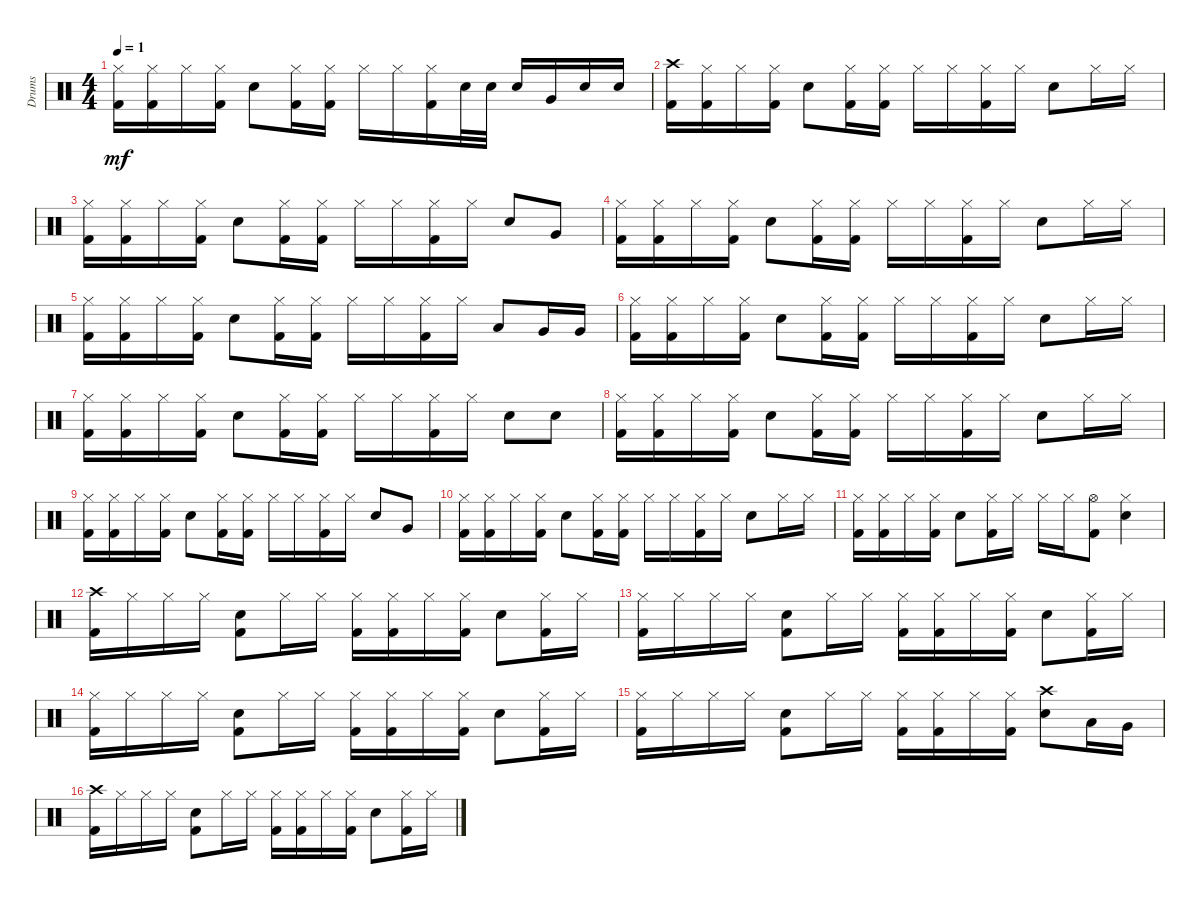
\track ("Drums" "Drums") {instrument percussion}
\staff {score}
\articulation defaults
\ts (4 4)
\tempo 1
\clef neutral
\ks c
("Hi-Hat (closed)" "Kick (hit) 2").16{dy mf} ("Hi-Hat (closed)" "Kick (hit) 2").16 "Hi-Hat (closed)".16 ("Hi-Hat (closed)" "Kick (hit) 2").16 "Snare (hit) 2".8 ("Hi-Hat (closed)" "Kick (hit) 2").16 ("Hi-Hat (closed)" "Kick (hit) 2").16 "Hi-Hat (closed)".16 "Hi-Hat (closed)".16 ("Kick (hit) 2" "Hi-Hat (closed)").16 "Snare (hit) 2".32 "Snare (hit) 2".32 "Snare (hit) 2".16 "Very Low Tom (hit)".16 "Snare (hit) 2".16 "Snare (hit) 2".16 |
("Kick (hit) 2" "Crash high (hit)").16 ("Hi-Hat (closed)" "Kick (hit) 2").16 "Hi-Hat (closed)".16 ("Hi-Hat (closed)" "Kick (hit) 2").16 "Snare (hit) 2".8 ("Hi-Hat (closed)" "Kick (hit) 2").16 ("Hi-Hat (closed)" "Kick (hit) 2").16 "Hi-Hat (closed)".16 "Hi-Hat (closed)".16 ("Hi-Hat (closed)" "Kick (hit) 2").16 "Hi-Hat (closed)".16 "Snare (hit) 2".8 "Hi-Hat (closed)".16 "Hi-Hat (closed)".16 |
("Hi-Hat (closed)" "Kick (hit) 2").16 ("Hi-Hat (closed)" "Kick (hit) 2").16 "Hi-Hat (closed)".16 ("Hi-Hat (closed)" "Kick (hit) 2").16 "Snare (hit) 2".8 ("Hi-Hat (closed)" "Kick (hit) 2").16 ("Hi-Hat (closed)" "Kick (hit) 2").16 "Hi-Hat (closed)".16 "Hi-Hat (closed)".16 ("Hi-Hat (closed)" "Kick (hit) 2").16 "Hi-Hat (closed)".16 "Snare (hit) 2".8 "Very Low Tom (hit)".8 |
("Hi-Hat (closed)" "Kick (hit) 2").16 ("Hi-Hat (closed)" "Kick (hit) 2").16 "Hi-Hat (closed)".16 ("Hi-Hat (closed)" "Kick (hit) 2").16 "Snare (hit) 2".8 ("Hi-Hat (closed)" "Kick (hit) 2").16 ("Hi-Hat (closed)" "Kick (hit) 2").16 "Hi-Hat (closed)".16 "Hi-Hat (closed)".16 ("Hi-Hat (closed)" "Kick (hit) 2").16 "Hi-Hat (closed)".16 "Snare (hit) 2".8 "Hi-Hat (closed)".16 "Hi-Hat (closed)".16 |
("Hi-Hat (closed)" "Kick (hit) 2").16 ("Hi-Hat (closed)" "Kick (hit) 2").16 "Hi-Hat (closed)".16 ("Hi-Hat (closed)" "Kick (hit) 2").16 "Snare (hit) 2".8 ("Hi-Hat (closed)" "Kick (hit) 2").16 ("Hi-Hat (closed)" "Kick (hit) 2").16 "Hi-Hat (closed)".16 "Hi-Hat (closed)".16 ("Hi-Hat (closed)" "Kick (hit) 2").16 "Hi-Hat (closed)".16 "Low Tom (hit)".8 "Very Low Tom (hit)".16 "Very Low Tom (hit)".16 |
("Hi-Hat (closed)" "Kick (hit) 2").16 ("Hi-Hat (closed)" "Kick (hit) 2").16 "Hi-Hat (closed)".16 ("Hi-Hat (closed)" "Kick (hit) 2").16 "Snare (hit) 2".8 ("Hi-Hat (closed)" "Kick (hit) 2").16 ("Hi-Hat (closed)" "Kick (hit) 2").16 "Hi-Hat (closed)".16 "Hi-Hat (closed)".16 ("Hi-Hat (closed)" "Kick (hit) 2").16 "Hi-Hat (closed)".16 "Snare (hit) 2".8 "Hi-Hat (closed)".16 "Hi-Hat (closed)".16 |
("Hi-Hat (closed)" "Kick (hit) 2").16 ("Hi-Hat (closed)" "Kick (hit) 2").16 "Hi-Hat (closed)".16 ("Hi-Hat (closed)" "Kick (hit) 2").16 "Snare (hit) 2".8 ("Hi-Hat (closed)" "Kick (hit) 2").16 ("Hi-Hat (closed)" "Kick (hit) 2").16 "Hi-Hat (closed)".16 "Hi-Hat (closed)".16 ("Hi-Hat (closed)" "Kick (hit) 2").16 "Hi-Hat (closed)".16 "Snare (hit) 2".8 "Snare (hit) 2".8 |
("Hi-Hat (closed)" "Kick (hit) 2").16 ("Hi-Hat (closed)" "Kick (hit) 2").16 "Hi-Hat (closed)".16 ("Hi-Hat (closed)" "Kick (hit) 2").16 "Snare (hit) 2".8 ("Hi-Hat (closed)" "Kick (hit) 2").16 ("Hi-Hat (closed)" "Kick (hit) 2").16 "Hi-Hat (closed)".16 "Hi-Hat (closed)".16 ("Hi-Hat (closed)" "Kick (hit) 2").16 "Hi-Hat (closed)".16 "Snare (hit) 2".8 "Hi-Hat (closed)".16 "Hi-Hat (closed)".16 |
("Hi-Hat (closed)" "Kick (hit) 2").16 ("Hi-Hat (closed)" "Kick (hit) 2").16 "Hi-Hat (closed)".16 ("Hi-Hat (closed)" "Kick (hit) 2").16 "Snare (hit) 2".8 ("Hi-Hat (closed)" "Kick (hit) 2").16 ("Hi-Hat (closed)" "Kick (hit) 2").16 "Hi-Hat (closed)".16 "Hi-Hat (closed)".16 ("Hi-Hat (closed)" "Kick (hit) 2").16 "Hi-Hat (closed)".16 "Snare (hit) 2".8 "Very Low Tom (hit)".8 |
("Hi-Hat (closed)" "Kick (hit) 2").16 ("Hi-Hat (closed)" "Kick (hit) 2").16 "Hi-Hat (closed)".16 ("Hi-Hat (closed)" "Kick (hit) 2").16 "Snare (hit) 2".8 ("Hi-Hat (closed)" "Kick (hit) 2").16 ("Hi-Hat (closed)" "Kick (hit) 2").16 "Hi-Hat (closed)".16 "Hi-Hat (closed)".16 ("Hi-Hat (closed)" "Kick (hit) 2").16 "Hi-Hat (closed)".16 "Snare (hit) 2".8 "Hi-Hat (closed)".16 "Hi-Hat (closed)".16 |
("Hi-Hat (closed)" "Kick (hit) 2").16 ("Hi-Hat (closed)" "Kick (hit) 2").16 "Hi-Hat (closed)".16 ("Hi-Hat (closed)" "Kick (hit) 2").16 "Snare (hit) 2".8 ("Hi-Hat (closed)" "Kick (hit) 2").16 "Hi-Hat (closed)".16 "Hi-Hat (closed)".16 "Hi-Hat (closed)".16 ("Hi-Hat (open)" "Kick (hit) 2").8 ("Snare (hit) 2" "Hi-Hat (closed)").4 |
("Crash high (hit)" "Kick (hit) 2").16 "Hi-Hat (closed)".16 "Hi-Hat (closed)".16 "Hi-Hat (closed)".16 ("Kick (hit) 2" "Snare (hit) 2").8 "Hi-Hat (closed)".16 "Hi-Hat (closed)".16 ("Hi-Hat (closed)" "Kick (hit) 2").16 ("Hi-Hat (closed)" "Kick (hit) 2").16 "Hi-Hat (closed)".16 ("Hi-Hat (closed)" "Kick (hit) 2").16 "Snare (hit) 2".8 ("Hi-Hat (closed)" "Kick (hit) 2").16 "Hi-Hat (closed)".16 |
("Kick (hit) 2" "Hi-Hat (closed)").16 "Hi-Hat (closed)".16 "Hi-Hat (closed)".16 "Hi-Hat (closed)".16 ("Kick (hit) 2" "Snare (hit) 2").8 "Hi-Hat (closed)".16 "Hi-Hat (closed)".16 ("Hi-Hat (closed)" "Kick (hit) 2").16 ("Hi-Hat (closed)" "Kick (hit) 2").16 "Hi-Hat (closed)".16 ("Hi-Hat (closed)" "Kick (hit) 2").16 "Snare (hit) 2".8 ("Hi-Hat (closed)" "Kick (hit) 2").16 "Hi-Hat (closed)".16 |
("Kick (hit) 2" "Hi-Hat (closed)").16 "Hi-Hat (closed)".16 "Hi-Hat (closed)".16 "Hi-Hat (closed)".16 ("Kick (hit) 2" "Snare (hit) 2").8 "Hi-Hat (closed)".16 "Hi-Hat (closed)".16 ("Hi-Hat (closed)" "Kick (hit) 2").16 ("Hi-Hat (closed)" "Kick (hit) 2").16 "Hi-Hat (closed)".16 ("Hi-Hat (closed)" "Kick (hit) 2").16 "Snare (hit) 2".8 ("Hi-Hat (closed)" "Kick (hit) 2").16 "Hi-Hat (closed)".16 |
("Kick (hit) 2" "Hi-Hat (closed)").16 "Hi-Hat (closed)".16 "Hi-Hat (closed)".16 "Hi-Hat (closed)".16 ("Kick (hit) 2" "Snare (hit) 2").8 "Hi-Hat (closed)".16 "Hi-Hat (closed)".16 ("Hi-Hat (closed)" "Kick (hit) 2").16 ("Hi-Hat (closed)" "Kick (hit) 2").16 "Hi-Hat (closed)".16 ("Hi-Hat (closed)" "Kick (hit) 2").16 ("Snare (hit) 2" "Crash high (hit)").8 "Low Tom (hit)".16 "Very Low Tom (hit)".16 |
("Crash high (hit)" "Kick (hit) 2").16 "Hi-Hat (closed)".16 "Hi-Hat (closed)".16 "Hi-Hat (closed)".16 ("Kick (hit) 2" "Snare (hit) 2").8 "Hi-Hat (closed)".16 "Hi-Hat (closed)".16 ("Hi-Hat (closed)" "Kick (hit) 2").16 ("Hi-Hat (closed)" "Kick (hit) 2").16 "Hi-Hat (closed)".16 ("Hi-Hat (closed)" "Kick (hit) 2").16 "Snare (hit) 2".8 ("Hi-Hat (closed)" "Kick (hit) 2").16 "Hi-Hat (closed)".16
